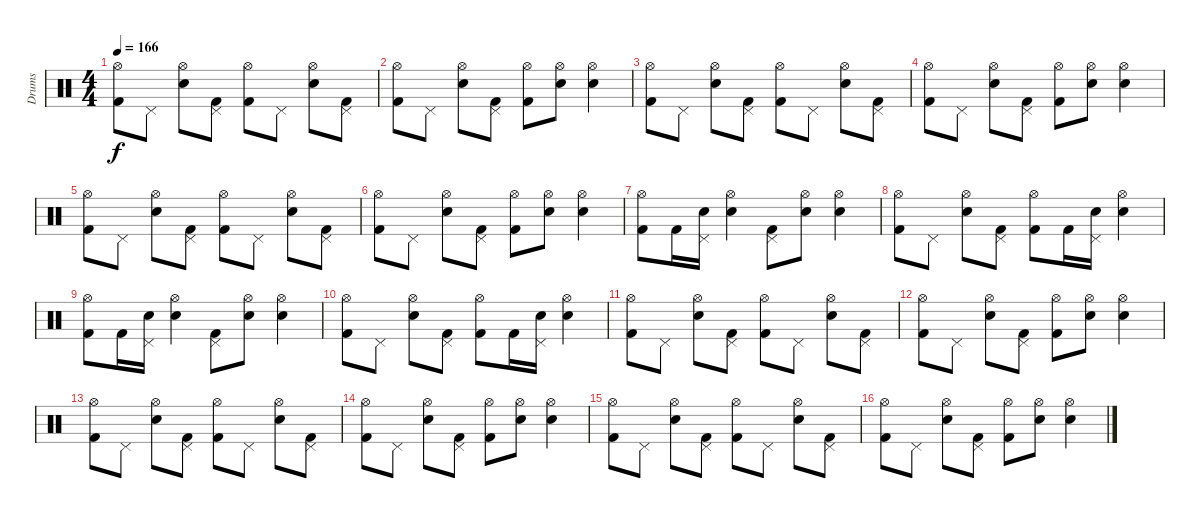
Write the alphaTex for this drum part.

\track ("Drums" "Drums") {instrument percussion}
\staff {score}
\articulation defaults
\ts (4 4)
\tempo 166
\clef neutral
\ks c
("Kick (hit) 2" "Hi-Hat (open)").8{dy f} "Pedal Hi-Hat (hit)".8 ("Snare (hit) 2" "Hi-Hat (open)").8 ("Kick (hit) 2" "Pedal Hi-Hat (hit)").8 ("Kick (hit) 2" "Hi-Hat (open)").8 "Pedal Hi-Hat (hit)".8 ("Snare (hit) 2" "Hi-Hat (open)").8 ("Kick (hit) 2" "Pedal Hi-Hat (hit)").8 |
("Kick (hit) 2" "Hi-Hat (open)").8 "Pedal Hi-Hat (hit)".8 ("Snare (hit) 2" "Hi-Hat (open)").8 ("Kick (hit) 2" "Pedal Hi-Hat (hit)").8 ("Kick (hit) 2" "Hi-Hat (open)").8 ("Snare (hit) 2" "Hi-Hat (open)").8 ("Snare (hit) 2" "Hi-Hat (open)").4 |
("Kick (hit) 2" "Hi-Hat (open)").8 "Pedal Hi-Hat (hit)".8 ("Snare (hit) 2" "Hi-Hat (open)").8 ("Kick (hit) 2" "Pedal Hi-Hat (hit)").8 ("Kick (hit) 2" "Hi-Hat (open)").8 "Pedal Hi-Hat (hit)".8 ("Snare (hit) 2" "Hi-Hat (open)").8 ("Kick (hit) 2" "Pedal Hi-Hat (hit)").8 |
("Kick (hit) 2" "Hi-Hat (open)").8 "Pedal Hi-Hat (hit)".8 ("Snare (hit) 2" "Hi-Hat (open)").8 ("Kick (hit) 2" "Pedal Hi-Hat (hit)").8 ("Kick (hit) 2" "Hi-Hat (open)").8 ("Snare (hit) 2" "Hi-Hat (open)").8 ("Snare (hit) 2" "Hi-Hat (open)").4 |
("Kick (hit) 2" "Hi-Hat (open)").8 "Pedal Hi-Hat (hit)".8 ("Snare (hit) 2" "Hi-Hat (open)").8 ("Kick (hit) 2" "Pedal Hi-Hat (hit)").8 ("Kick (hit) 2" "Hi-Hat (open)").8 "Pedal Hi-Hat (hit)".8 ("Snare (hit) 2" "Hi-Hat (open)").8 ("Kick (hit) 2" "Pedal Hi-Hat (hit)").8 |
("Kick (hit) 2" "Hi-Hat (open)").8 "Pedal Hi-Hat (hit)".8 ("Snare (hit) 2" "Hi-Hat (open)").8 ("Kick (hit) 2" "Pedal Hi-Hat (hit)").8 ("Kick (hit) 2" "Hi-Hat (open)").8 ("Snare (hit) 2" "Hi-Hat (open)").8 ("Snare (hit) 2" "Hi-Hat (open)").4 |
("Kick (hit) 2" "Hi-Hat (open)").8 "Kick (hit) 2".16 ("Snare (hit) 2" "Pedal Hi-Hat (hit)").16 ("Snare (hit) 2" "Hi-Hat (open)").4 ("Kick (hit) 2" "Pedal Hi-Hat (hit)").8 ("Snare (hit) 2" "Hi-Hat (open)").8 ("Snare (hit) 2" "Hi-Hat (open)").4 |
("Kick (hit) 2" "Hi-Hat (open)").8 "Pedal Hi-Hat (hit)".8 ("Snare (hit) 2" "Hi-Hat (open)").8 ("Kick (hit) 2" "Pedal Hi-Hat (hit)").8 ("Kick (hit) 2" "Hi-Hat (open)").8 "Kick (hit) 2".16 ("Snare (hit) 2" "Pedal Hi-Hat (hit)").16 ("Snare (hit) 2" "Hi-Hat (open)").4 |
("Kick (hit) 2" "Hi-Hat (open)").8 "Kick (hit) 2".16 ("Snare (hit) 2" "Pedal Hi-Hat (hit)").16 ("Snare (hit) 2" "Hi-Hat (open)").4 ("Kick (hit) 2" "Pedal Hi-Hat (hit)").8 ("Snare (hit) 2" "Hi-Hat (open)").8 ("Snare (hit) 2" "Hi-Hat (open)").4 |
("Kick (hit) 2" "Hi-Hat (open)").8 "Pedal Hi-Hat (hit)".8 ("Snare (hit) 2" "Hi-Hat (open)").8 ("Kick (hit) 2" "Pedal Hi-Hat (hit)").8 ("Kick (hit) 2" "Hi-Hat (open)").8 "Kick (hit) 2".16 ("Snare (hit) 2" "Pedal Hi-Hat (hit)").16 ("Snare (hit) 2" "Hi-Hat (open)").4 |
("Kick (hit) 2" "Hi-Hat (open)").8 "Pedal Hi-Hat (hit)".8 ("Snare (hit) 2" "Hi-Hat (open)").8 ("Kick (hit) 2" "Pedal Hi-Hat (hit)").8 ("Kick (hit) 2" "Hi-Hat (open)").8 "Pedal Hi-Hat (hit)".8 ("Snare (hit) 2" "Hi-Hat (open)").8 ("Kick (hit) 2" "Pedal Hi-Hat (hit)").8 |
("Kick (hit) 2" "Hi-Hat (open)").8 "Pedal Hi-Hat (hit)".8 ("Snare (hit) 2" "Hi-Hat (open)").8 ("Kick (hit) 2" "Pedal Hi-Hat (hit)").8 ("Kick (hit) 2" "Hi-Hat (open)").8 ("Snare (hit) 2" "Hi-Hat (open)").8 ("Snare (hit) 2" "Hi-Hat (open)").4 |
("Kick (hit) 2" "Hi-Hat (open)").8 "Pedal Hi-Hat (hit)".8 ("Snare (hit) 2" "Hi-Hat (open)").8 ("Kick (hit) 2" "Pedal Hi-Hat (hit)").8 ("Kick (hit) 2" "Hi-Hat (open)").8 "Pedal Hi-Hat (hit)".8 ("Snare (hit) 2" "Hi-Hat (open)").8 ("Kick (hit) 2" "Pedal Hi-Hat (hit)").8 |
("Kick (hit) 2" "Hi-Hat (open)").8 "Pedal Hi-Hat (hit)".8 ("Snare (hit) 2" "Hi-Hat (open)").8 ("Kick (hit) 2" "Pedal Hi-Hat (hit)").8 ("Kick (hit) 2" "Hi-Hat (open)").8 ("Snare (hit) 2" "Hi-Hat (open)").8 ("Snare (hit) 2" "Hi-Hat (open)").4 |
("Kick (hit) 2" "Hi-Hat (open)").8 "Pedal Hi-Hat (hit)".8 ("Snare (hit) 2" "Hi-Hat (open)").8 ("Kick (hit) 2" "Pedal Hi-Hat (hit)").8 ("Kick (hit) 2" "Hi-Hat (open)").8 "Pedal Hi-Hat (hit)".8 ("Snare (hit) 2" "Hi-Hat (open)").8 ("Kick (hit) 2" "Pedal Hi-Hat (hit)").8 |
("Kick (hit) 2" "Hi-Hat (open)").8 "Pedal Hi-Hat (hit)".8 ("Snare (hit) 2" "Hi-Hat (open)").8 ("Kick (hit) 2" "Pedal Hi-Hat (hit)").8 ("Kick (hit) 2" "Hi-Hat (open)").8 ("Snare (hit) 2" "Hi-Hat (open)").8 ("Snare (hit) 2" "Hi-Hat (open)").4
